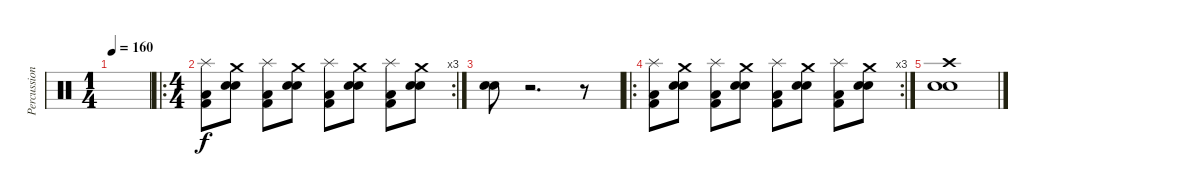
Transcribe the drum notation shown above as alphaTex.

\track ("Percussions" "Percussion") {instrument percussion}
\staff {score}
\articulation defaults
\ts (1 4)
\tempo 160
\clef neutral
\ks c
|
\ro
\rc 3
\ts (4 4)
("Splash (hit)" "Kick (hit) 2" "Low Floor Tom (hit)").8 ("Crash medium (hit)" "Snare (hit) 2" "Electric Snare (hit)").8 ("Splash (hit)" "Kick (hit) 2" "Low Floor Tom (hit)").8 ("Crash medium (hit)" "Snare (hit) 2" "Electric Snare (hit)").8 ("Splash (hit)" "Kick (hit) 2" "Low Floor Tom (hit)").8 ("Crash medium (hit)" "Snare (hit) 2" "Electric Snare (hit)").8 ("Splash (hit)" "Kick (hit) 2" "Low Floor Tom (hit)").8 ("Crash medium (hit)" "Snare (hit) 2" "Electric Snare (hit)").8 |
("Electric Snare (hit)" "Snare (hit) 2").8 r.2{d} r.8 |
\ro
\rc 3
("Splash (hit)" "Kick (hit) 2" "Low Floor Tom (hit)").8 ("Crash medium (hit)" "Snare (hit) 2" "Electric Snare (hit)").8 ("Splash (hit)" "Kick (hit) 2" "Low Floor Tom (hit)").8 ("Crash medium (hit)" "Snare (hit) 2" "Electric Snare (hit)").8 ("Splash (hit)" "Kick (hit) 2" "Low Floor Tom (hit)").8 ("Crash medium (hit)" "Snare (hit) 2" "Electric Snare (hit)").8 ("Splash (hit)" "Kick (hit) 2" "Low Floor Tom (hit)").8 ("Crash medium (hit)" "Snare (hit) 2" "Electric Snare (hit)").8 |
("Crash high (hit)" "Electric Snare (hit)" "Snare (hit) 2").1
